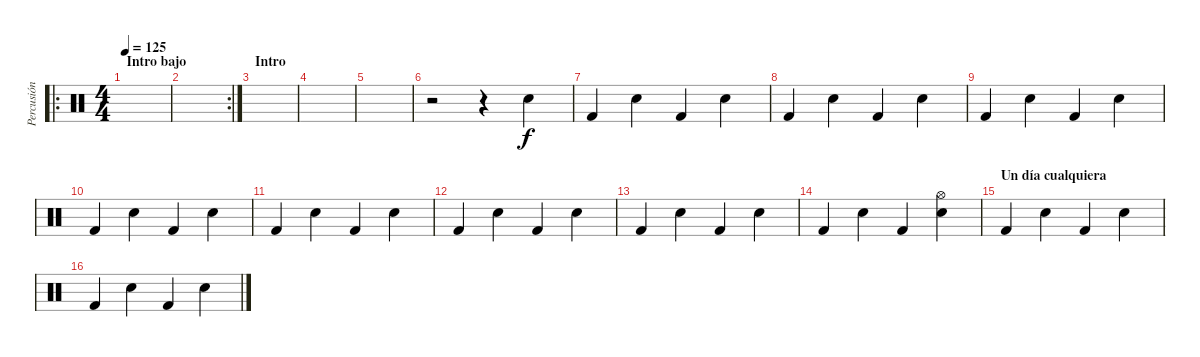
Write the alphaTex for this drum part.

\track ("Percusión" "Percusión") {instrument percussion}
\staff {score}
\articulation defaults
\ro
\ts (4 4)
\section ("" "Intro bajo")
\tempo 125
\clef neutral
\ks c
|
\rc 2
|
\section ("" "Intro")
|
|
|
r.2 r.4 "Electric Snare (hit)".4 |
"Kick (hit) 2".4 "Electric Snare (hit)".4 "Kick (hit) 2".4 "Electric Snare (hit)".4 |
"Kick (hit) 2".4 "Electric Snare (hit)".4 "Kick (hit) 2".4 "Electric Snare (hit)".4 |
"Kick (hit) 2".4 "Electric Snare (hit)".4 "Kick (hit) 2".4 "Electric Snare (hit)".4 |
"Kick (hit) 2".4 "Electric Snare (hit)".4 "Kick (hit) 2".4 "Electric Snare (hit)".4 |
"Kick (hit) 2".4 "Electric Snare (hit)".4 "Kick (hit) 2".4 "Electric Snare (hit)".4 |
"Kick (hit) 2".4 "Electric Snare (hit)".4 "Kick (hit) 2".4 "Electric Snare (hit)".4 |
"Kick (hit) 2".4 "Electric Snare (hit)".4 "Kick (hit) 2".4 "Electric Snare (hit)".4 |
"Kick (hit) 2".4 "Electric Snare (hit)".4 "Kick (hit) 2".4 ("Hi-Hat (open)" "Electric Snare (hit)").4 |
\section ("" "Un día cualquiera")
"Kick (hit) 2".4 "Electric Snare (hit)".4 "Kick (hit) 2".4 "Electric Snare (hit)".4 |
"Kick (hit) 2".4 "Electric Snare (hit)".4 "Kick (hit) 2".4 "Electric Snare (hit)".4
